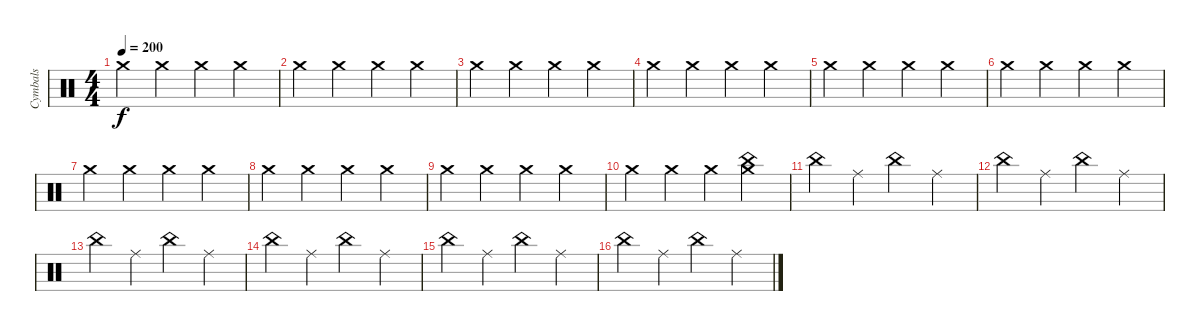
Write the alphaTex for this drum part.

\track ("Cymbals" "Cymbals") {instrument percussion}
\staff {score}
\articulation defaults
\ts (4 4)
\tempo 200
\clef neutral
\ks c "Crash medium (hit)".4{dy f} "Crash medium (hit)".4 "Crash medium (hit)".4 "Crash medium (hit)".4
|
"Crash medium (hit)".4 "Crash medium (hit)".4 "Crash medium (hit)".4 "Crash medium (hit)".4 |
"Crash medium (hit)".4 "Crash medium (hit)".4 "Crash medium (hit)".4 "Crash medium (hit)".4 |
"Crash medium (hit)".4 "Crash medium (hit)".4 "Crash medium (hit)".4 "Crash medium (hit)".4 |
"Crash medium (hit)".4 "Crash medium (hit)".4 "Crash medium (hit)".4 "Crash medium (hit)".4 |
"Crash medium (hit)".4 "Crash medium (hit)".4 "Crash medium (hit)".4 "Crash medium (hit)".4 |
"Crash medium (hit)".4 "Crash medium (hit)".4 "Crash medium (hit)".4 "Crash medium (hit)".4 |
"Crash medium (hit)".4 "Crash medium (hit)".4 "Crash medium (hit)".4 "Crash medium (hit)".4 |
"Crash medium (hit)".4 "Crash medium (hit)".4 "Crash medium (hit)".4 "Crash medium (hit)".4 |
"Crash medium (hit)".4 "Crash medium (hit)".4 "Crash medium (hit)".4 ("China (hit)" "Crash medium (hit)").4 |
"China (hit)".4 "Ride (middle)".4 "China (hit)".4 "Ride (middle)".4 |
"China (hit)".4 "Ride (middle)".4 "China (hit)".4 "Ride (middle)".4 |
"China (hit)".4 "Ride (middle)".4 "China (hit)".4 "Ride (middle)".4 |
"China (hit)".4 "Ride (middle)".4 "China (hit)".4 "Ride (middle)".4 |
"China (hit)".4 "Ride (middle)".4 "China (hit)".4 "Ride (middle)".4 |
"China (hit)".4 "Ride (middle)".4 "China (hit)".4 "Ride (middle)".4
